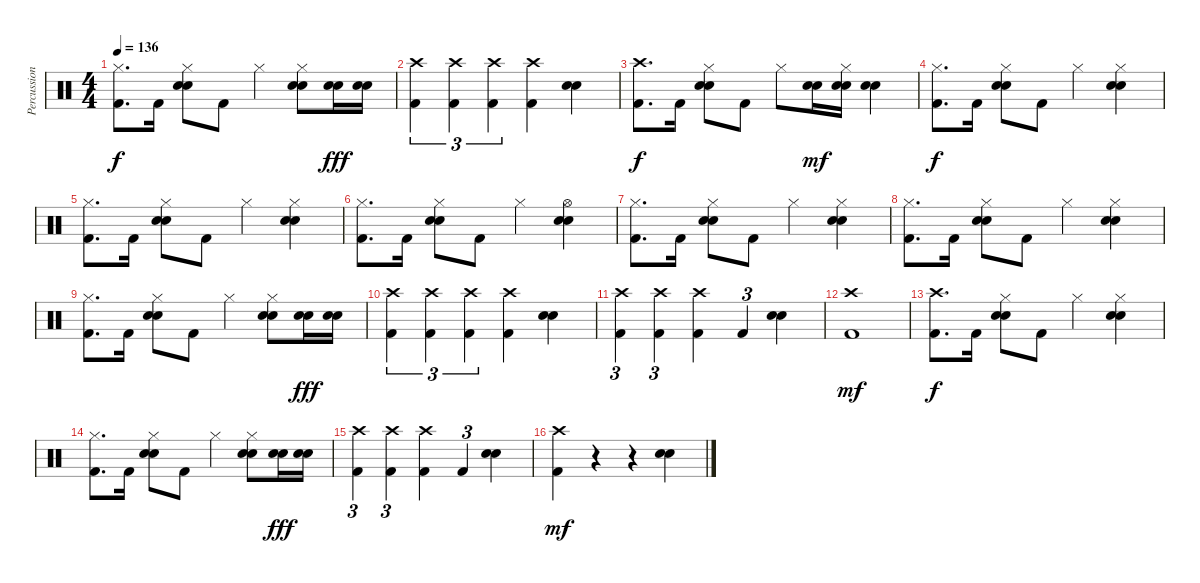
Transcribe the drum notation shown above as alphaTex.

\track ("Percussion" "Percussion") {instrument percussion}
\staff {score}
\articulation defaults
\ts (4 4)
\tempo 136
\clef neutral
\ks c
("Hi-Hat (closed)" "Kick (hit) 2").8{d dy f} "Kick (hit) 2".16 ("Hi-Hat (closed)" "Electric Snare (hit)" "Snare (hit) 2").8 "Kick (hit) 2".8 "Hi-Hat (closed)".4 ("Hi-Hat (closed)" "Electric Snare (hit)" "Snare (hit) 2").8 ("Electric Snare (hit)" "Snare (hit) 2").16{dy fff} ("Electric Snare (hit)" "Snare (hit) 2").16 |
("Crash high (hit)" "Kick (hit) 2").4{tu (3 2)} ("Crash high (hit)" "Kick (hit) 2").4{tu (3 2)} ("Crash high (hit)" "Kick (hit) 2").4{tu (3 2)} ("Crash high (hit)" "Kick (hit) 2").4 ("Electric Snare (hit)" "Snare (hit) 2").4 |
("Crash high (hit)" "Kick (hit) 2").8{d dy f} "Kick (hit) 2".16 ("Hi-Hat (closed)" "Electric Snare (hit)" "Snare (hit) 2").8 "Kick (hit) 2".8 "Hi-Hat (closed)".8 ("Electric Snare (hit)" "Snare (hit) 2").16{dy mf} ("Hi-Hat (closed)" "Electric Snare (hit)" "Snare (hit) 2").16 ("Electric Snare (hit)" "Snare (hit) 2").4 |
("Hi-Hat (closed)" "Kick (hit) 2").8{d dy f} "Kick (hit) 2".16 ("Hi-Hat (closed)" "Electric Snare (hit)" "Snare (hit) 2").8 "Kick (hit) 2".8 "Hi-Hat (closed)".4 ("Hi-Hat (closed)" "Electric Snare (hit)" "Snare (hit) 2").4 |
("Hi-Hat (closed)" "Kick (hit) 2").8{d} "Kick (hit) 2".16 ("Hi-Hat (closed)" "Electric Snare (hit)" "Snare (hit) 2").8 "Kick (hit) 2".8 "Hi-Hat (closed)".4 ("Hi-Hat (closed)" "Electric Snare (hit)" "Snare (hit) 2").4 |
("Hi-Hat (closed)" "Kick (hit) 2").8{d} "Kick (hit) 2".16 ("Hi-Hat (closed)" "Electric Snare (hit)" "Snare (hit) 2").8 "Kick (hit) 2".8 "Hi-Hat (closed)".4 ("Hi-Hat (open)" "Electric Snare (hit)" "Snare (hit) 2").4 |
("Hi-Hat (closed)" "Kick (hit) 2").8{d} "Kick (hit) 2".16 ("Hi-Hat (closed)" "Electric Snare (hit)" "Snare (hit) 2").8 "Kick (hit) 2".8 "Hi-Hat (closed)".4 ("Hi-Hat (closed)" "Electric Snare (hit)" "Snare (hit) 2").4 |
("Hi-Hat (closed)" "Kick (hit) 2").8{d} "Kick (hit) 2".16 ("Hi-Hat (closed)" "Electric Snare (hit)" "Snare (hit) 2").8 "Kick (hit) 2".8 "Hi-Hat (closed)".4 ("Hi-Hat (closed)" "Electric Snare (hit)" "Snare (hit) 2").4 |
("Hi-Hat (closed)" "Kick (hit) 2").8{d} "Kick (hit) 2".16 ("Hi-Hat (closed)" "Electric Snare (hit)" "Snare (hit) 2").8 "Kick (hit) 2".8 "Hi-Hat (closed)".4 ("Hi-Hat (closed)" "Electric Snare (hit)" "Snare (hit) 2").8 ("Electric Snare (hit)" "Snare (hit) 2").16{dy fff} ("Electric Snare (hit)" "Snare (hit) 2").16 |
("Crash high (hit)" "Kick (hit) 2").4{tu (3 2)} ("Crash high (hit)" "Kick (hit) 2").4{tu (3 2)} ("Crash high (hit)" "Kick (hit) 2").4{tu (3 2)} ("Crash high (hit)" "Kick (hit) 2").4 ("Electric Snare (hit)" "Snare (hit) 2").4 |
("Crash high (hit)" "Kick (hit) 2").4{tu (3 2)} ("Crash high (hit)" "Kick (hit) 2").4{tu (3 2)} ("Crash high (hit)" "Kick (hit) 2").4 "Kick (hit) 2".4{tu (3 2)} ("Electric Snare (hit)" "Snare (hit) 2").4 |
("Crash high (hit)" "Kick (hit) 2").1{dy mf} |
("Crash high (hit)" "Kick (hit) 2").8{d dy f} "Kick (hit) 2".16 ("Hi-Hat (closed)" "Electric Snare (hit)" "Snare (hit) 2").8 "Kick (hit) 2".8 "Hi-Hat (closed)".4 ("Hi-Hat (closed)" "Electric Snare (hit)" "Snare (hit) 2").4 |
("Hi-Hat (closed)" "Kick (hit) 2").8{d} "Kick (hit) 2".16 ("Hi-Hat (closed)" "Electric Snare (hit)" "Snare (hit) 2").8 "Kick (hit) 2".8 "Hi-Hat (closed)".4 ("Hi-Hat (closed)" "Electric Snare (hit)" "Snare (hit) 2").8 ("Electric Snare (hit)" "Snare (hit) 2").16{dy fff} ("Electric Snare (hit)" "Snare (hit) 2").16 |
("Crash high (hit)" "Kick (hit) 2").4{tu (3 2)} ("Crash high (hit)" "Kick (hit) 2").4{tu (3 2)} ("Crash high (hit)" "Kick (hit) 2").4 "Kick (hit) 2".4{tu (3 2)} ("Electric Snare (hit)" "Snare (hit) 2").4 |
("Crash high (hit)" "Kick (hit) 2").4{dy mf} r.4 r.4 ("Electric Snare (hit)" "Snare (hit) 2").4
